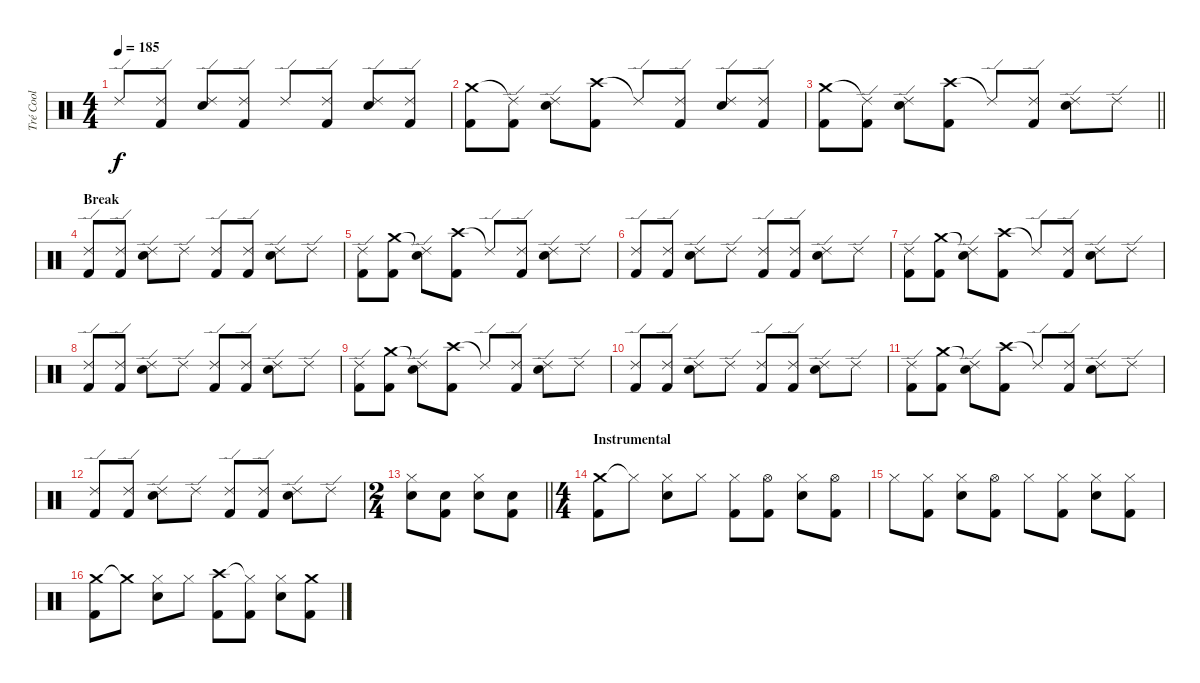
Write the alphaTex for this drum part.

\track ("Tré Cool" "Tré Cool") {instrument percussion}
\staff {score}
\articulation defaults
\ts (4 4)
\tempo 185
\clef neutral
\ks c "Ride (edge) 2".8{dy f}
("Ride (edge) 2" "Kick (hit) 2").8 ("Ride (edge) 2" "Electric Snare (hit)").8 ("Ride (edge) 2" "Kick (hit) 2").8 "Ride (edge) 2".8 ("Ride (edge) 2" "Kick (hit) 2").8 ("Ride (edge) 2" "Electric Snare (hit)").8 ("Ride (edge) 2" "Kick (hit) 2").8 |
("Crash medium (hit)" "Kick (hit) 2").8 ("Ride (edge) 2"{t} "Kick (hit) 2").8 ("Ride (edge) 2" "Electric Snare (hit)").8 ("Crash high (hit)" "Kick (hit) 2").8 "Ride (edge) 2"{t}.8 ("Ride (edge) 2" "Kick (hit) 2").8 ("Ride (edge) 2" "Electric Snare (hit)").8 ("Ride (edge) 2" "Kick (hit) 2").8 |
\barLineRight lightlight
("Crash medium (hit)" "Kick (hit) 2").8 ("Ride (edge) 2"{t} "Kick (hit) 2").8 ("Ride (edge) 2" "Electric Snare (hit)").8 ("Crash high (hit)" "Kick (hit) 2").8 "Ride (edge) 2"{t}.8 ("Ride (edge) 2" "Kick (hit) 2").8 ("Ride (edge) 2" "Electric Snare (hit)").8 "Ride (edge) 2".8 |
\section ("" "Break")
("Ride (edge) 2" "Kick (hit) 2").8 ("Ride (edge) 2" "Kick (hit) 2").8 ("Ride (edge) 2" "Electric Snare (hit)").8 "Ride (edge) 2".8 ("Ride (edge) 2" "Kick (hit) 2").8 ("Ride (edge) 2" "Kick (hit) 2").8 ("Ride (edge) 2" "Electric Snare (hit)").8 "Ride (edge) 2".8 |
("Ride (edge) 2" "Kick (hit) 2").8 ("Crash medium (hit)" "Kick (hit) 2").8 ("Ride (edge) 2"{t} "Electric Snare (hit)").8 ("Crash high (hit)" "Kick (hit) 2").8 "Ride (edge) 2"{t}.8 ("Ride (edge) 2" "Kick (hit) 2").8 ("Ride (edge) 2" "Electric Snare (hit)").8 "Ride (edge) 2".8 |
("Ride (edge) 2" "Kick (hit) 2").8 ("Ride (edge) 2" "Kick (hit) 2").8 ("Ride (edge) 2" "Electric Snare (hit)").8 "Ride (edge) 2".8 ("Ride (edge) 2" "Kick (hit) 2").8 ("Ride (edge) 2" "Kick (hit) 2").8 ("Ride (edge) 2" "Electric Snare (hit)").8 "Ride (edge) 2".8 |
("Ride (edge) 2" "Kick (hit) 2").8 ("Crash medium (hit)" "Kick (hit) 2").8 ("Ride (edge) 2"{t} "Electric Snare (hit)").8 ("Crash high (hit)" "Kick (hit) 2").8 "Ride (edge) 2"{t}.8 ("Ride (edge) 2" "Kick (hit) 2").8 ("Ride (edge) 2" "Electric Snare (hit)").8 "Ride (edge) 2".8 |
("Ride (edge) 2" "Kick (hit) 2").8 ("Ride (edge) 2" "Kick (hit) 2").8 ("Ride (edge) 2" "Electric Snare (hit)").8 "Ride (edge) 2".8 ("Ride (edge) 2" "Kick (hit) 2").8 ("Ride (edge) 2" "Kick (hit) 2").8 ("Ride (edge) 2" "Electric Snare (hit)").8 "Ride (edge) 2".8 |
("Ride (edge) 2" "Kick (hit) 2").8 ("Crash medium (hit)" "Kick (hit) 2").8 ("Ride (edge) 2"{t} "Electric Snare (hit)").8 ("Crash high (hit)" "Kick (hit) 2").8 "Ride (edge) 2"{t}.8 ("Ride (edge) 2" "Kick (hit) 2").8 ("Ride (edge) 2" "Electric Snare (hit)").8 "Ride (edge) 2".8 |
("Ride (edge) 2" "Kick (hit) 2").8 ("Ride (edge) 2" "Kick (hit) 2").8 ("Ride (edge) 2" "Electric Snare (hit)").8 "Ride (edge) 2".8 ("Ride (edge) 2" "Kick (hit) 2").8 ("Ride (edge) 2" "Kick (hit) 2").8 ("Ride (edge) 2" "Electric Snare (hit)").8 "Ride (edge) 2".8 |
("Ride (edge) 2" "Kick (hit) 2").8 ("Crash medium (hit)" "Kick (hit) 2").8 ("Ride (edge) 2"{t} "Electric Snare (hit)").8 ("Crash high (hit)" "Kick (hit) 2").8 "Ride (edge) 2"{t}.8 ("Ride (edge) 2" "Kick (hit) 2").8 ("Ride (edge) 2" "Electric Snare (hit)").8 "Ride (edge) 2".8 |
("Ride (edge) 2" "Kick (hit) 2").8 ("Ride (edge) 2" "Kick (hit) 2").8 ("Ride (edge) 2" "Electric Snare (hit)").8 "Ride (edge) 2".8 ("Ride (edge) 2" "Kick (hit) 2").8 ("Ride (edge) 2" "Kick (hit) 2").8 ("Ride (edge) 2" "Electric Snare (hit)").8 "Ride (edge) 2".8 |
\ts (2 4)
\barLineRight lightlight
("Hi-Hat (closed)" "Electric Snare (hit)").8 ("Snare (hit) 2" "Kick (hit) 2").8 ("Hi-Hat (closed)" "Electric Snare (hit)").8 ("Snare (hit) 2" "Kick (hit) 2").8 |
\ts (4 4)
\section ("" "Instrumental")
("Crash medium (hit)" "Kick (hit) 2").8 "Hi-Hat (closed)"{t}.8 ("Hi-Hat (closed)" "Electric Snare (hit)").8 "Hi-Hat (closed)".8 ("Hi-Hat (closed)" "Kick (hit) 2").8 ("Hi-Hat (open)" "Kick (hit) 2").8 ("Hi-Hat (closed)" "Electric Snare (hit)").8 ("Hi-Hat (open)" "Kick (hit) 2").8 |
"Hi-Hat (closed)".8 ("Hi-Hat (closed)" "Kick (hit) 2").8 ("Hi-Hat (closed)" "Electric Snare (hit)").8 ("Hi-Hat (open)" "Kick (hit) 2").8 "Hi-Hat (closed)".8 ("Hi-Hat (closed)" "Kick (hit) 2").8 ("Hi-Hat (closed)" "Electric Snare (hit)").8 ("Hi-Hat (closed)" "Kick (hit) 2").8 |
("Crash medium (hit)" "Kick (hit) 2").8 "Crash medium (hit)"{t}.8 ("Hi-Hat (closed)" "Electric Snare (hit)").8 "Hi-Hat (closed)".8 ("Crash high (hit)" "Kick (hit) 2").8 ("Hi-Hat (closed)"{t} "Kick (hit) 2").8 ("Hi-Hat (closed)" "Electric Snare (hit)").8 ("Crash medium (hit)" "Kick (hit) 2").8
